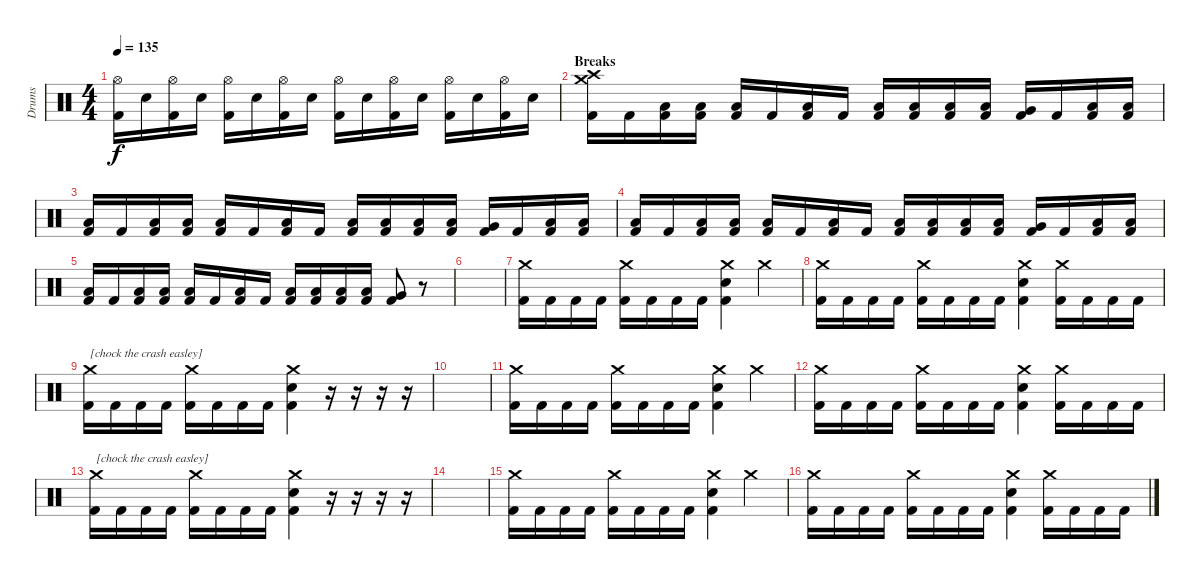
\track ("Drums" "Drums") {instrument percussion}
\staff {score}
\articulation defaults
\ts (4 4)
\tempo 135
\clef neutral
\ks c
("Hi-Hat (open)" "Kick (hit) 2").16{dy f} "Electric Snare (hit)".16 ("Hi-Hat (open)" "Kick (hit) 2").16 "Electric Snare (hit)".16 ("Hi-Hat (open)" "Kick (hit) 2").16 "Electric Snare (hit)".16 ("Hi-Hat (open)" "Kick (hit) 2").16 "Electric Snare (hit)".16 ("Hi-Hat (open)" "Kick (hit) 2").16 "Electric Snare (hit)".16 ("Hi-Hat (open)" "Kick (hit) 2").16 "Electric Snare (hit)".16 ("Hi-Hat (open)" "Kick (hit) 2").16 "Electric Snare (hit)".16 ("Hi-Hat (open)" "Kick (hit) 2").16 "Electric Snare (hit)".16 |
\section ("" "Breaks")
("Crash high (hit)" "Crash medium (hit)" "Kick (hit) 2").16 "Kick (hit) 2".16 ("Low Floor Tom (hit)" "Kick (hit) 2").16 ("Low Floor Tom (hit)" "Kick (hit) 2").16 ("Low Floor Tom (hit)" "Kick (hit) 2").16 "Kick (hit) 2".16 ("Low Floor Tom (hit)" "Kick (hit) 2").16 "Kick (hit) 2".16 ("Low Floor Tom (hit)" "Kick (hit) 2").16 ("Low Floor Tom (hit)" "Kick (hit) 2").16 ("Low Floor Tom (hit)" "Kick (hit) 2").16 ("Low Floor Tom (hit)" "Kick (hit) 2").16 ("Very Low Tom (hit)" "Kick (hit) 2").16 "Kick (hit) 2".16 ("Low Floor Tom (hit)" "Kick (hit) 2").16 ("Low Floor Tom (hit)" "Kick (hit) 2").16 |
("Low Floor Tom (hit)" "Kick (hit) 2").16 "Kick (hit) 2".16 ("Low Floor Tom (hit)" "Kick (hit) 2").16 ("Low Floor Tom (hit)" "Kick (hit) 2").16 ("Low Floor Tom (hit)" "Kick (hit) 2").16 "Kick (hit) 2".16 ("Low Floor Tom (hit)" "Kick (hit) 2").16 "Kick (hit) 2".16 ("Low Floor Tom (hit)" "Kick (hit) 2").16 ("Low Floor Tom (hit)" "Kick (hit) 2").16 ("Low Floor Tom (hit)" "Kick (hit) 2").16 ("Low Floor Tom (hit)" "Kick (hit) 2").16 ("Very Low Tom (hit)" "Kick (hit) 2").16 "Kick (hit) 2".16 ("Low Floor Tom (hit)" "Kick (hit) 2").16 ("Low Floor Tom (hit)" "Kick (hit) 2").16 |
("Low Floor Tom (hit)" "Kick (hit) 2").16 "Kick (hit) 2".16 ("Low Floor Tom (hit)" "Kick (hit) 2").16 ("Low Floor Tom (hit)" "Kick (hit) 2").16 ("Low Floor Tom (hit)" "Kick (hit) 2").16 "Kick (hit) 2".16 ("Low Floor Tom (hit)" "Kick (hit) 2").16 "Kick (hit) 2".16 ("Low Floor Tom (hit)" "Kick (hit) 2").16 ("Low Floor Tom (hit)" "Kick (hit) 2").16 ("Low Floor Tom (hit)" "Kick (hit) 2").16 ("Low Floor Tom (hit)" "Kick (hit) 2").16 ("Very Low Tom (hit)" "Kick (hit) 2").16 "Kick (hit) 2".16 ("Low Floor Tom (hit)" "Kick (hit) 2").16 ("Low Floor Tom (hit)" "Kick (hit) 2").16 |
("Low Floor Tom (hit)" "Kick (hit) 2").16 "Kick (hit) 2".16 ("Low Floor Tom (hit)" "Kick (hit) 2").16 ("Low Floor Tom (hit)" "Kick (hit) 2").16 ("Low Floor Tom (hit)" "Kick (hit) 2").16 "Kick (hit) 2".16 ("Low Floor Tom (hit)" "Kick (hit) 2").16 "Kick (hit) 2".16 ("Low Floor Tom (hit)" "Kick (hit) 2").16 ("Low Floor Tom (hit)" "Kick (hit) 2").16 ("Low Floor Tom (hit)" "Kick (hit) 2").16 ("Low Floor Tom (hit)" "Kick (hit) 2").16 ("Very Low Tom (hit)" "Kick (hit) 2").8 r.8 |
|
("Crash medium (hit)" "Kick (hit) 2").16 "Kick (hit) 2".16 "Kick (hit) 2".16 "Kick (hit) 2".16 ("Crash medium (hit)" "Kick (hit) 2").16 "Kick (hit) 2".16 "Kick (hit) 2".16 "Kick (hit) 2".16 ("Crash medium (hit)" "Electric Snare (hit)" "Kick (hit) 2").4 "Crash medium (hit)".4 |
("Crash medium (hit)" "Kick (hit) 2").16 "Kick (hit) 2".16 "Kick (hit) 2".16 "Kick (hit) 2".16 ("Crash medium (hit)" "Kick (hit) 2").16 "Kick (hit) 2".16 "Kick (hit) 2".16 "Kick (hit) 2".16 ("Crash medium (hit)" "Electric Snare (hit)" "Kick (hit) 2").4 ("Crash medium (hit)" "Kick (hit) 2").16 "Kick (hit) 2".16 "Kick (hit) 2".16 "Kick (hit) 2".16 |
("Crash medium (hit)" "Kick (hit) 2").16{txt "[chock the crash easley]"} "Kick (hit) 2".16 "Kick (hit) 2".16 "Kick (hit) 2".16 ("Crash medium (hit)" "Kick (hit) 2").16 "Kick (hit) 2".16 "Kick (hit) 2".16 "Kick (hit) 2".16 ("Crash medium (hit)" "Electric Snare (hit)" "Kick (hit) 2").4 r.16 r.16 r.16 r.16 |
|
("Crash medium (hit)" "Kick (hit) 2").16 "Kick (hit) 2".16 "Kick (hit) 2".16 "Kick (hit) 2".16 ("Crash medium (hit)" "Kick (hit) 2").16 "Kick (hit) 2".16 "Kick (hit) 2".16 "Kick (hit) 2".16 ("Crash medium (hit)" "Electric Snare (hit)" "Kick (hit) 2").4 "Crash medium (hit)".4 |
("Crash medium (hit)" "Kick (hit) 2").16 "Kick (hit) 2".16 "Kick (hit) 2".16 "Kick (hit) 2".16 ("Crash medium (hit)" "Kick (hit) 2").16 "Kick (hit) 2".16 "Kick (hit) 2".16 "Kick (hit) 2".16 ("Crash medium (hit)" "Electric Snare (hit)" "Kick (hit) 2").4 ("Crash medium (hit)" "Kick (hit) 2").16 "Kick (hit) 2".16 "Kick (hit) 2".16 "Kick (hit) 2".16 |
("Crash medium (hit)" "Kick (hit) 2").16{txt "[chock the crash easley]"} "Kick (hit) 2".16 "Kick (hit) 2".16 "Kick (hit) 2".16 ("Crash medium (hit)" "Kick (hit) 2").16 "Kick (hit) 2".16 "Kick (hit) 2".16 "Kick (hit) 2".16 ("Crash medium (hit)" "Electric Snare (hit)" "Kick (hit) 2").4 r.16 r.16 r.16 r.16 |
|
("Crash medium (hit)" "Kick (hit) 2").16 "Kick (hit) 2".16 "Kick (hit) 2".16 "Kick (hit) 2".16 ("Crash medium (hit)" "Kick (hit) 2").16 "Kick (hit) 2".16 "Kick (hit) 2".16 "Kick (hit) 2".16 ("Crash medium (hit)" "Electric Snare (hit)" "Kick (hit) 2").4 "Crash medium (hit)".4 |
("Crash medium (hit)" "Kick (hit) 2").16 "Kick (hit) 2".16 "Kick (hit) 2".16 "Kick (hit) 2".16 ("Crash medium (hit)" "Kick (hit) 2").16 "Kick (hit) 2".16 "Kick (hit) 2".16 "Kick (hit) 2".16 ("Crash medium (hit)" "Electric Snare (hit)" "Kick (hit) 2").4 ("Crash medium (hit)" "Kick (hit) 2").16 "Kick (hit) 2".16 "Kick (hit) 2".16 "Kick (hit) 2".16
